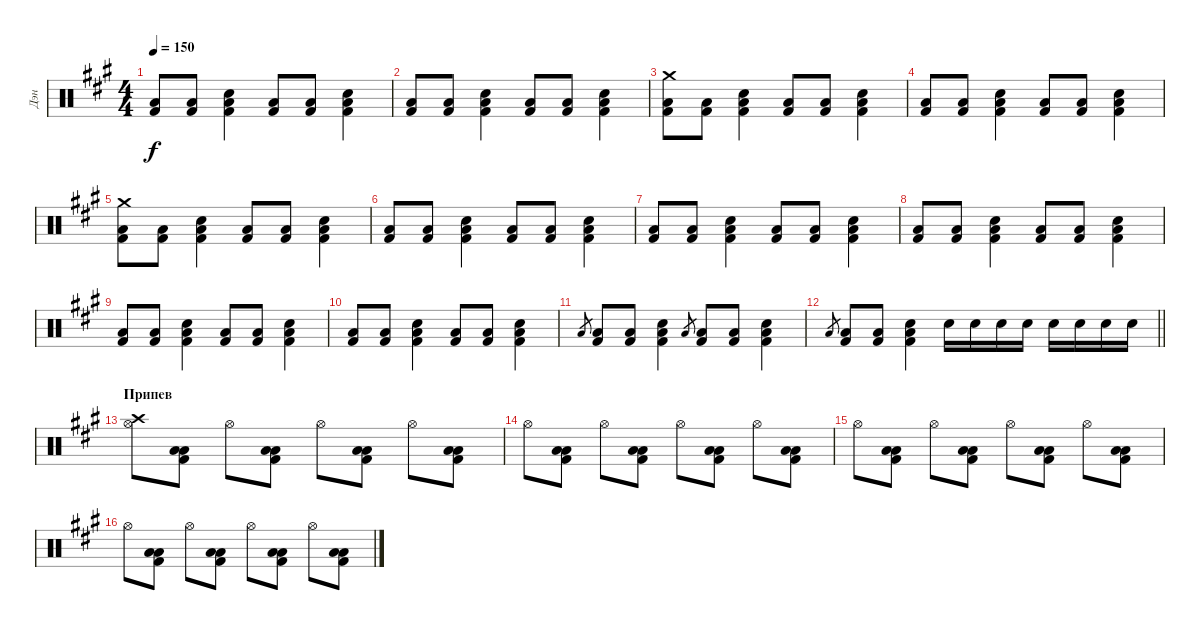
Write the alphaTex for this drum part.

\track ("Дэн" "Дэн") {instrument percussion}
\staff {score}
\articulation defaults
\ts (4 4)
\tempo 150
\clef neutral
\ks f#minor
("Low Tom (hit)" "Kick (hit) 2").8{dy f} ("Low Tom (hit)" "Kick (hit) 2").8 ("Electric Snare (hit)" "Low Tom (hit)" "Kick (hit) 2").4 ("Low Tom (hit)" "Kick (hit) 2").8 ("Low Tom (hit)" "Kick (hit) 2").8 ("Electric Snare (hit)" "Low Tom (hit)" "Kick (hit) 2").4 |
("Low Tom (hit)" "Kick (hit) 2").8 ("Low Tom (hit)" "Kick (hit) 2").8 ("Electric Snare (hit)" "Low Tom (hit)" "Kick (hit) 2").4 ("Low Tom (hit)" "Kick (hit) 2").8 ("Low Tom (hit)" "Kick (hit) 2").8 ("Electric Snare (hit)" "Low Tom (hit)" "Kick (hit) 2").4 |
("Crash medium (hit)" "Low Tom (hit)" "Kick (hit) 2").8 ("Low Tom (hit)" "Kick (hit) 2").8 ("Electric Snare (hit)" "Low Tom (hit)" "Kick (hit) 2").4 ("Low Tom (hit)" "Kick (hit) 2").8 ("Low Tom (hit)" "Kick (hit) 2").8 ("Electric Snare (hit)" "Low Tom (hit)" "Kick (hit) 2").4 |
("Low Tom (hit)" "Kick (hit) 2").8 ("Low Tom (hit)" "Kick (hit) 2").8 ("Electric Snare (hit)" "Low Tom (hit)" "Kick (hit) 2").4 ("Low Tom (hit)" "Kick (hit) 2").8 ("Low Tom (hit)" "Kick (hit) 2").8 ("Electric Snare (hit)" "Low Tom (hit)" "Kick (hit) 2").4 |
("Crash medium (hit)" "Low Tom (hit)" "Kick (hit) 2").8 ("Low Tom (hit)" "Kick (hit) 2").8 ("Electric Snare (hit)" "Low Tom (hit)" "Kick (hit) 2").4 ("Low Tom (hit)" "Kick (hit) 2").8 ("Low Tom (hit)" "Kick (hit) 2").8 ("Electric Snare (hit)" "Low Tom (hit)" "Kick (hit) 2").4 |
("Low Tom (hit)" "Kick (hit) 2").8 ("Low Tom (hit)" "Kick (hit) 2").8 ("Electric Snare (hit)" "Low Tom (hit)" "Kick (hit) 2").4 ("Low Tom (hit)" "Kick (hit) 2").8 ("Low Tom (hit)" "Kick (hit) 2").8 ("Electric Snare (hit)" "Low Tom (hit)" "Kick (hit) 2").4 |
("Low Tom (hit)" "Kick (hit) 2").8 ("Low Tom (hit)" "Kick (hit) 2").8 ("Electric Snare (hit)" "Low Tom (hit)" "Kick (hit) 2").4 ("Low Tom (hit)" "Kick (hit) 2").8 ("Low Tom (hit)" "Kick (hit) 2").8 ("Electric Snare (hit)" "Low Tom (hit)" "Kick (hit) 2").4 |
("Low Tom (hit)" "Kick (hit) 2").8 ("Low Tom (hit)" "Kick (hit) 2").8 ("Electric Snare (hit)" "Low Tom (hit)" "Kick (hit) 2").4 ("Low Tom (hit)" "Kick (hit) 2").8 ("Low Tom (hit)" "Kick (hit) 2").8 ("Electric Snare (hit)" "Low Tom (hit)" "Kick (hit) 2").4 |
("Low Tom (hit)" "Kick (hit) 2").8 ("Low Tom (hit)" "Kick (hit) 2").8 ("Electric Snare (hit)" "Low Tom (hit)" "Kick (hit) 2").4 ("Low Tom (hit)" "Kick (hit) 2").8 ("Low Tom (hit)" "Kick (hit) 2").8 ("Electric Snare (hit)" "Low Tom (hit)" "Kick (hit) 2").4 |
("Low Tom (hit)" "Kick (hit) 2").8 ("Low Tom (hit)" "Kick (hit) 2").8 ("Electric Snare (hit)" "Low Tom (hit)" "Kick (hit) 2").4 ("Low Tom (hit)" "Kick (hit) 2").8 ("Low Tom (hit)" "Kick (hit) 2").8 ("Electric Snare (hit)" "Low Tom (hit)" "Kick (hit) 2").4 |
"Low Tom (hit)".8{gr} ("Low Tom (hit)" "Kick (hit) 2").8 ("Low Tom (hit)" "Kick (hit) 2").8 ("Electric Snare (hit)" "Low Tom (hit)" "Kick (hit) 2").4 "Low Tom (hit)".8{gr} ("Low Tom (hit)" "Kick (hit) 2").8 ("Low Tom (hit)" "Kick (hit) 2").8 ("Electric Snare (hit)" "Low Tom (hit)" "Kick (hit) 2").4 |
\barLineRight lightlight "Low Tom (hit)".8{gr}
("Low Tom (hit)" "Kick (hit) 2").8 ("Low Tom (hit)" "Kick (hit) 2").8 ("Electric Snare (hit)" "Low Tom (hit)" "Kick (hit) 2").4 "Electric Snare (hit)".16 "Electric Snare (hit)".16 "Electric Snare (hit)".16 "Electric Snare (hit)".16 "Electric Snare (hit)".16 "Electric Snare (hit)".16 "Electric Snare (hit)".16 "Electric Snare (hit)".16 |
\section ("" "Припев")
("Crash high (hit)" "Hi-Hat (open)").8 ("Low Tom (hit)" "Low Tom (hit)" "Kick (hit) 2").8 "Hi-Hat (open)".8 ("Low Tom (hit)" "Low Tom (hit)" "Kick (hit) 2").8 "Hi-Hat (open)".8 ("Low Tom (hit)" "Low Tom (hit)" "Kick (hit) 2").8 "Hi-Hat (open)".8 ("Low Tom (hit)" "Low Tom (hit)" "Kick (hit) 2").8 |
"Hi-Hat (open)".8 ("Low Tom (hit)" "Low Tom (hit)" "Kick (hit) 2").8 "Hi-Hat (open)".8 ("Low Tom (hit)" "Low Tom (hit)" "Kick (hit) 2").8 "Hi-Hat (open)".8 ("Low Tom (hit)" "Low Tom (hit)" "Kick (hit) 2").8 "Hi-Hat (open)".8 ("Low Tom (hit)" "Low Tom (hit)" "Kick (hit) 2").8 |
"Hi-Hat (open)".8 ("Low Tom (hit)" "Low Tom (hit)" "Kick (hit) 2").8 "Hi-Hat (open)".8 ("Low Tom (hit)" "Low Tom (hit)" "Kick (hit) 2").8 "Hi-Hat (open)".8 ("Low Tom (hit)" "Low Tom (hit)" "Kick (hit) 2").8 "Hi-Hat (open)".8 ("Low Tom (hit)" "Low Tom (hit)" "Kick (hit) 2").8 |
"Hi-Hat (open)".8 ("Low Tom (hit)" "Low Tom (hit)" "Kick (hit) 2").8 "Hi-Hat (open)".8 ("Low Tom (hit)" "Low Tom (hit)" "Kick (hit) 2").8 "Hi-Hat (open)".8 ("Low Tom (hit)" "Low Tom (hit)" "Kick (hit) 2").8 "Hi-Hat (open)".8 ("Low Tom (hit)" "Low Tom (hit)" "Kick (hit) 2").8
